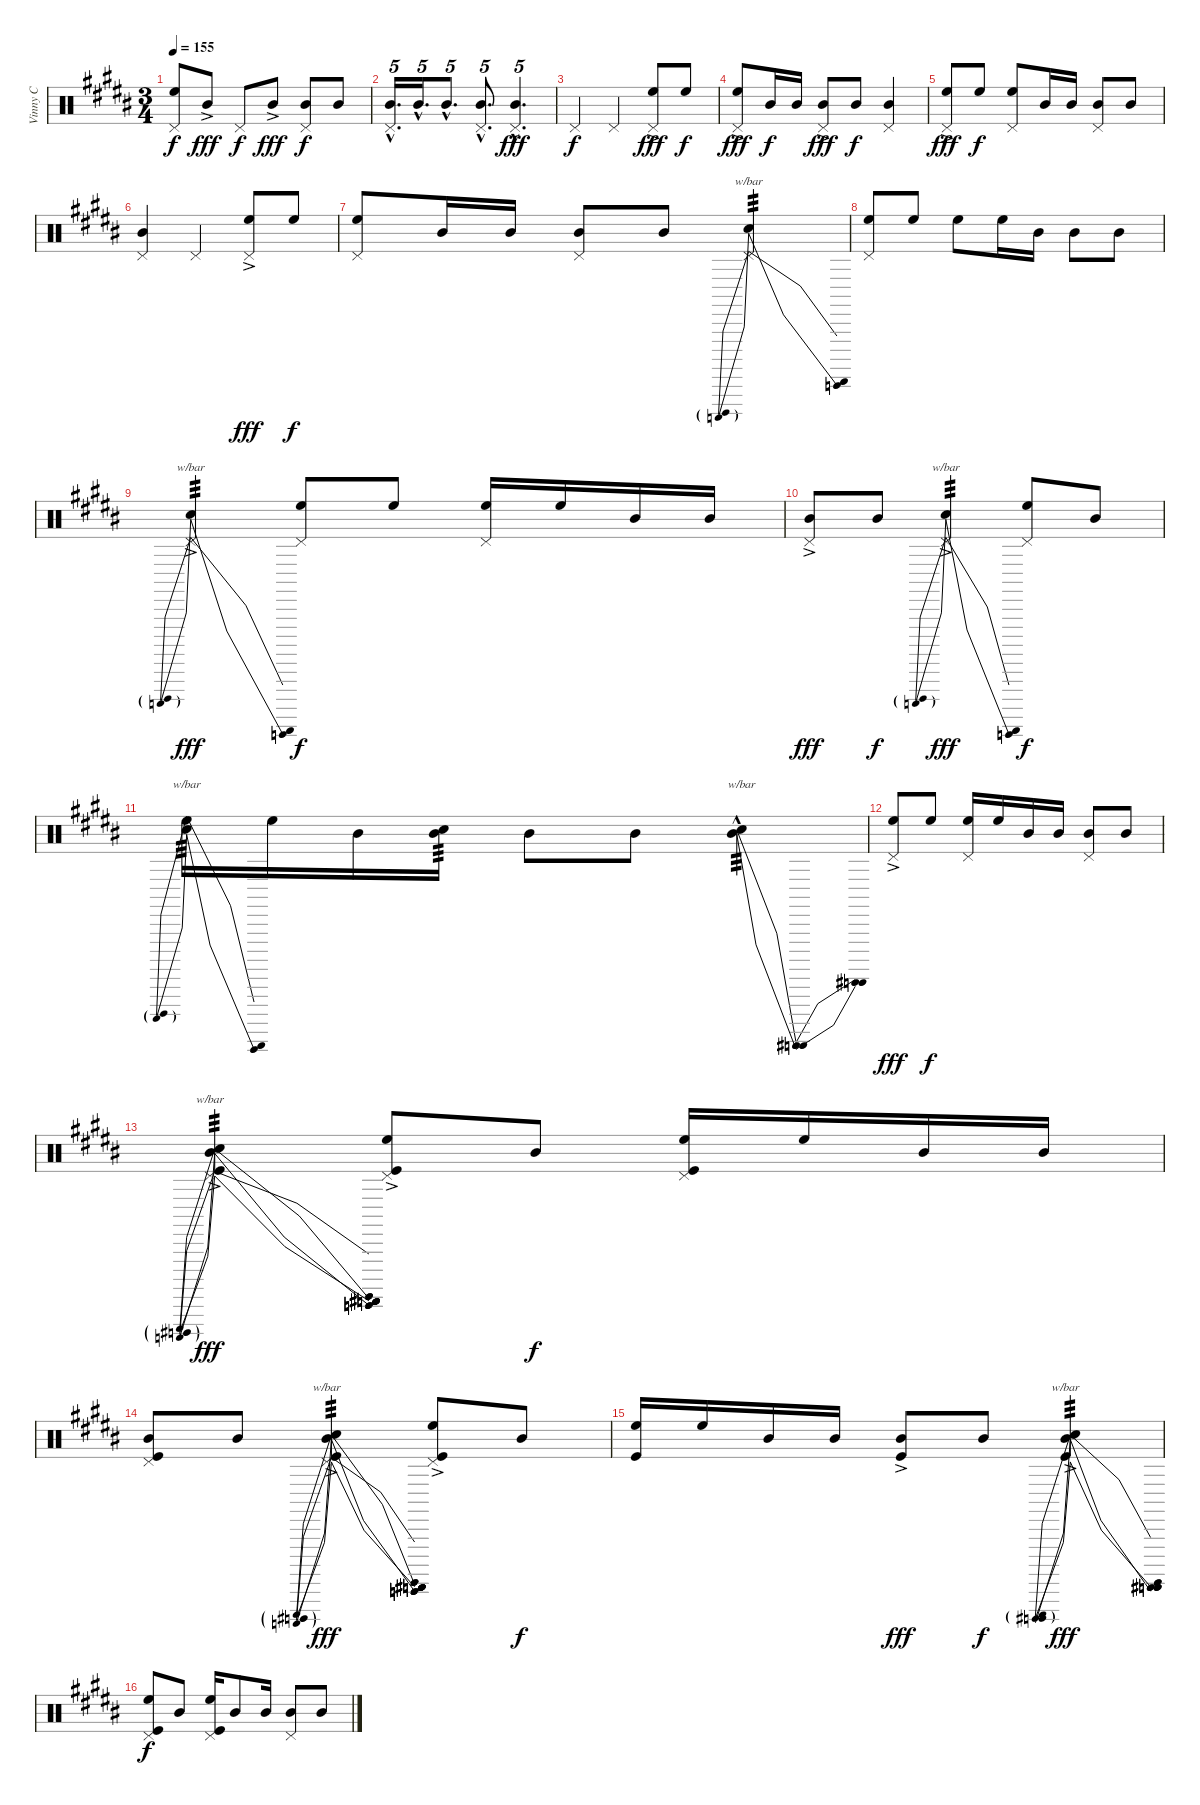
\track ("Vinny C" "Vinny C") {instrument percussion}
\staff {score}
\articulation defaults
\ts (3 4)
\tempo 155
\clef neutral
\ks b
("Pedal Hi-Hat (hit)" "High Floor Tom (hit)").8{dy f} "Mid Tom (hit)"{ac}.8{dy fff} "Pedal Hi-Hat (hit)".8{dy f} "Mid Tom (hit)"{ac}.8{dy fff} ("Pedal Hi-Hat (hit)" "Mid Tom (hit)").8{dy f} "Mid Tom (hit)".8 |
("Pedal Hi-Hat (hit)" "Mid Tom (hit)"{hac}).16{d tu (5 4)} "Mid Tom (hit)"{hac}.16{d tu (5 4)} "Mid Tom (hit)"{hac}.8{d tu (5 4)} ("Pedal Hi-Hat (hit)" "Mid Tom (hit)"{hac}).8{d tu (5 4)} ("Pedal Hi-Hat (hit)" "Mid Tom (hit)"{hac}).4{d tu (5 4) dy fff} |
"Pedal Hi-Hat (hit)".4{dy f} "Pedal Hi-Hat (hit)".4 ("Pedal Hi-Hat (hit)" "High Floor Tom (hit)"{ac}).8{dy fff} "High Floor Tom (hit)".8{dy f} |
("Pedal Hi-Hat (hit)" "High Floor Tom (hit)"{ac}).8{dy fff} "Mid Tom (hit)".16{dy f} "Mid Tom (hit)".16 ("Pedal Hi-Hat (hit)" "Mid Tom (hit)"{ac}).8{dy fff} "Mid Tom (hit)".8{dy f} ("Pedal Hi-Hat (hit)" "Mid Tom (hit)").4 |
("Pedal Hi-Hat (hit)" "High Floor Tom (hit)"{ac}).8{dy fff} "High Floor Tom (hit)".8{dy f} ("Pedal Hi-Hat (hit)" "High Floor Tom (hit)").8 "Mid Tom (hit)".16 "Mid Tom (hit)".16 ("Pedal Hi-Hat (hit)" "Mid Tom (hit)").8 "Mid Tom (hit)".8 |
("Pedal Hi-Hat (hit)" "Mid Tom (hit)").4 "Pedal Hi-Hat (hit)".4 ("Pedal Hi-Hat (hit)" "High Floor Tom (hit)"{ac}).8{dy fff} "High Floor Tom (hit)".8{dy f} |
("Pedal Hi-Hat (hit)" "High Floor Tom (hit)").8 "Mid Tom (hit)".16 "Mid Tom (hit)".16 ("Pedal Hi-Hat (hit)" "Mid Tom (hit)").8 "Mid Tom (hit)".8 ("Pedal Hi-Hat (hit)" "Electric Snare (hit)").4{tbe (predivedive default 0 -24 60 24) tp 3} |
("Pedal Hi-Hat (hit)" "High Floor Tom (hit)").8 "High Floor Tom (hit)".8 "High Floor Tom (hit)".8 "High Floor Tom (hit)".16 "Mid Tom (hit)".16 "Mid Tom (hit)".8 "Mid Tom (hit)".8 |
("Pedal Hi-Hat (hit)" "Electric Snare (hit)"{ac}).4{tbe (predivedive default 0 24 60 -24) tp 3 dy fff} ("Pedal Hi-Hat (hit)" "High Floor Tom (hit)").8{dy f} "High Floor Tom (hit)".8 ("Pedal Hi-Hat (hit)" "High Floor Tom (hit)").16 "High Floor Tom (hit)".16 "Mid Tom (hit)".16 "Mid Tom (hit)".16 |
("Pedal Hi-Hat (hit)" "Mid Tom (hit)"{ac}).8{dy fff} "Mid Tom (hit)".8{dy f} ("Pedal Hi-Hat (hit)" "Electric Snare (hit)"{ac}).4{tbe (predivedive default 0 16 60 -24) tp 3 dy fff} ("Pedal Hi-Hat (hit)" "High Floor Tom (hit)").8{dy f} "Mid Tom (hit)".8 |
("High Floor Tom (hit)" "Electric Snare (hit)").16{tbe (predivedive default 0 16 60 -24) tp 3} "High Floor Tom (hit)".16 "Mid Tom (hit)".16 ("Mid Tom (hit)" "Electric Snare (hit)").16{tp 3} "Mid Tom (hit)".8 "Mid Tom (hit)".8 ("Mid Tom (hit)" "Electric Snare (hit)"{hac}).4{tbe (dip default 0 0 30 -24 60 24) tp 3} |
("Pedal Hi-Hat (hit)"{ac} "High Floor Tom (hit)").8{dy fff} "High Floor Tom (hit)".8{dy f} ("Pedal Hi-Hat (hit)" "High Floor Tom (hit)").16 "High Floor Tom (hit)".16 "Mid Tom (hit)".16 "Mid Tom (hit)".16 ("Pedal Hi-Hat (hit)" "Mid Tom (hit)").8 "Mid Tom (hit)".8 |
("Pedal Hi-Hat (hit)" "Mid Tom (hit)" "Electric Snare (hit)" "Kick (hit)"{ac}).4{tbe (predivedive default 0 -12 60 24) tp 3 dy fff} ("Pedal Hi-Hat (hit)" "High Floor Tom (hit)" "Kick (hit)"{ac}).8 "Mid Tom (hit)".8{dy f} ("Pedal Hi-Hat (hit)" "High Floor Tom (hit)" "Kick (hit)").16 "High Floor Tom (hit)".16 "Mid Tom (hit)".16 "Mid Tom (hit)".16 |
("Pedal Hi-Hat (hit)" "Mid Tom (hit)" "Kick (hit)").8 "Mid Tom (hit)".8 ("Pedal Hi-Hat (hit)" "Mid Tom (hit)" "Electric Snare (hit)" "Kick (hit)"{ac}).4{tbe (predivedive default 0 -12 60 24) tp 3 dy fff} ("Pedal Hi-Hat (hit)" "High Floor Tom (hit)" "Kick (hit)"{ac}).8 "Mid Tom (hit)".8{dy f} |
("High Floor Tom (hit)" "Kick (hit)").16 "High Floor Tom (hit)".16 "Mid Tom (hit)".16 "Mid Tom (hit)".16 ("Mid Tom (hit)" "Kick (hit)"{ac}).8{dy fff} "Mid Tom (hit)".8{dy f} ("Mid Tom (hit)" "Electric Snare (hit)" "Kick (hit)"{ac}).4{tbe (predivedive default 0 -12 60 24) tp 3 dy fff} |
("Pedal Hi-Hat (hit)" "High Floor Tom (hit)" "Kick (hit)").8{dy f} "Mid Tom (hit)".8 ("Pedal Hi-Hat (hit)" "High Floor Tom (hit)" "Kick (hit)").16 "Mid Tom (hit)".8 "Mid Tom (hit)".16 ("Pedal Hi-Hat (hit)" "Mid Tom (hit)").8 "Mid Tom (hit)".8
